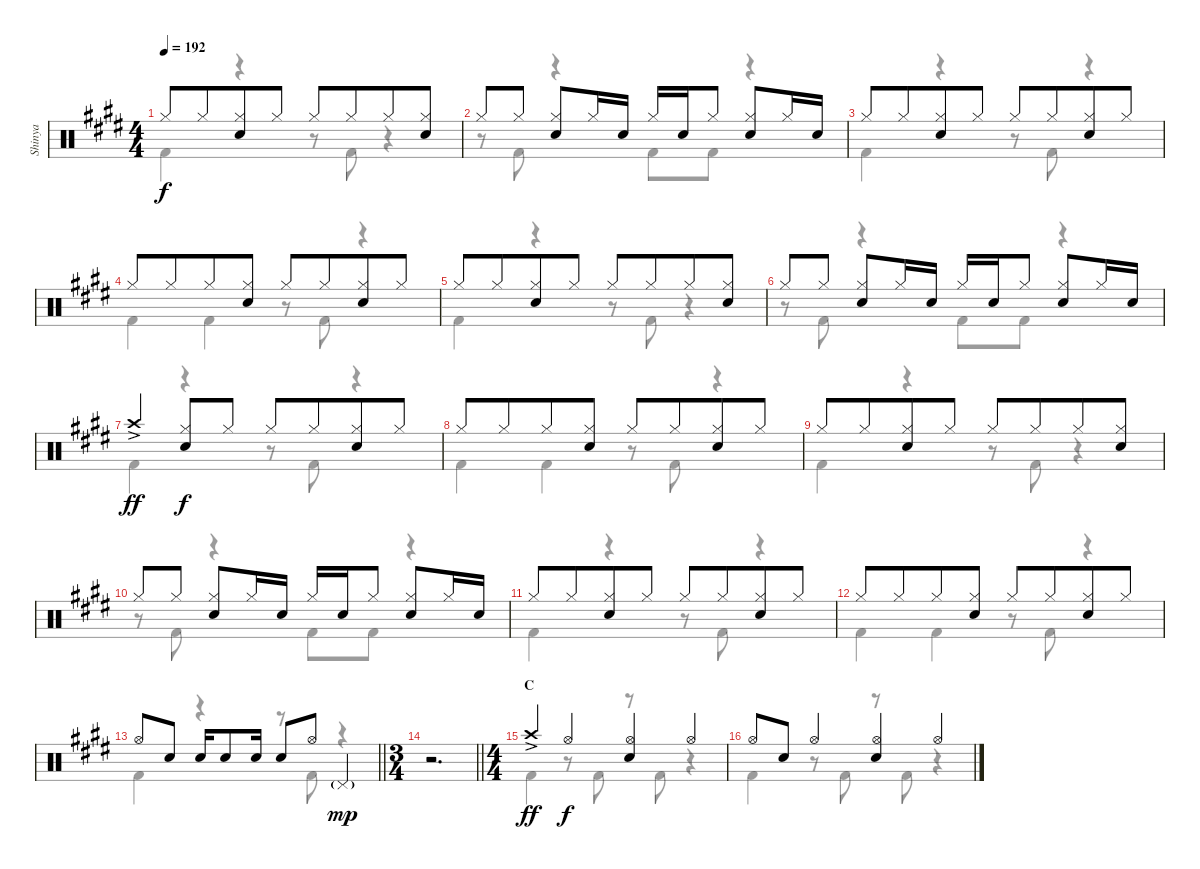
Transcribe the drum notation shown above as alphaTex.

\track ("Shinya" "Shinya") {instrument percussion}
\staff {score}
\articulation defaults
\voice
\ts (4 4)
\tempo 192
\clef neutral
\ks c#minor "Hi-Hat (closed)".8{dy f} "Hi-Hat (closed)".8{beam merge}
("Hi-Hat (closed)" "Snare (hit) 2").8 "Hi-Hat (closed)".8 "Hi-Hat (closed)".8 "Hi-Hat (closed)".8{beam merge} "Hi-Hat (closed)".8 ("Hi-Hat (closed)" "Snare (hit) 2").8 |
"Hi-Hat (closed)".8 "Hi-Hat (closed)".8 ("Hi-Hat (closed)" "Snare (hit) 2").8 "Hi-Hat (closed)".16 "Snare (hit) 2".16 "Hi-Hat (closed)".16 "Snare (hit) 2".16 "Hi-Hat (closed)".8 ("Hi-Hat (closed)" "Snare (hit) 2").8 "Hi-Hat (closed)".16 "Snare (hit) 2".16 |
"Hi-Hat (closed)".8 "Hi-Hat (closed)".8{beam merge} ("Hi-Hat (closed)" "Snare (hit) 2").8 "Hi-Hat (closed)".8 "Hi-Hat (closed)".8 "Hi-Hat (closed)".8{beam merge} ("Hi-Hat (closed)" "Snare (hit) 2").8 "Hi-Hat (closed)".8 |
"Hi-Hat (closed)".8 "Hi-Hat (closed)".8{beam merge} "Hi-Hat (closed)".8 ("Hi-Hat (closed)" "Snare (hit) 2").8 "Hi-Hat (closed)".8 "Hi-Hat (closed)".8{beam merge} ("Hi-Hat (closed)" "Snare (hit) 2").8 "Hi-Hat (closed)".8 |
"Hi-Hat (closed)".8 "Hi-Hat (closed)".8{beam merge} ("Hi-Hat (closed)" "Snare (hit) 2").8 "Hi-Hat (closed)".8 "Hi-Hat (closed)".8 "Hi-Hat (closed)".8{beam merge} "Hi-Hat (closed)".8 ("Hi-Hat (closed)" "Snare (hit) 2").8 |
"Hi-Hat (closed)".8 "Hi-Hat (closed)".8 ("Hi-Hat (closed)" "Snare (hit) 2").8 "Hi-Hat (closed)".16 "Snare (hit) 2".16 "Hi-Hat (closed)".16 "Snare (hit) 2".16 "Hi-Hat (closed)".8 ("Hi-Hat (closed)" "Snare (hit) 2").8 "Hi-Hat (closed)".16 "Snare (hit) 2".16 |
"Crash high (hit)"{ac}.4{dy ff} ("Hi-Hat (closed)" "Snare (hit) 2").8{dy f} "Hi-Hat (closed)".8 "Hi-Hat (closed)".8 "Hi-Hat (closed)".8{beam merge} ("Hi-Hat (closed)" "Snare (hit) 2").8 "Hi-Hat (closed)".8 |
"Hi-Hat (closed)".8 "Hi-Hat (closed)".8{beam merge} "Hi-Hat (closed)".8 ("Hi-Hat (closed)" "Snare (hit) 2").8 "Hi-Hat (closed)".8 "Hi-Hat (closed)".8{beam merge} ("Hi-Hat (closed)" "Snare (hit) 2").8 "Hi-Hat (closed)".8 |
"Hi-Hat (closed)".8 "Hi-Hat (closed)".8{beam merge} ("Hi-Hat (closed)" "Snare (hit) 2").8 "Hi-Hat (closed)".8 "Hi-Hat (closed)".8 "Hi-Hat (closed)".8{beam merge} "Hi-Hat (closed)".8 ("Hi-Hat (closed)" "Snare (hit) 2").8 |
"Hi-Hat (closed)".8 "Hi-Hat (closed)".8 ("Hi-Hat (closed)" "Snare (hit) 2").8 "Hi-Hat (closed)".16 "Snare (hit) 2".16 "Hi-Hat (closed)".16 "Snare (hit) 2".16 "Hi-Hat (closed)".8 ("Hi-Hat (closed)" "Snare (hit) 2").8 "Hi-Hat (closed)".16 "Snare (hit) 2".16 |
"Hi-Hat (closed)".8 "Hi-Hat (closed)".8{beam merge} ("Hi-Hat (closed)" "Snare (hit) 2").8 "Hi-Hat (closed)".8 "Hi-Hat (closed)".8 "Hi-Hat (closed)".8{beam merge} ("Hi-Hat (closed)" "Snare (hit) 2").8 "Hi-Hat (closed)".8 |
"Hi-Hat (closed)".8 "Hi-Hat (closed)".8{beam merge} "Hi-Hat (closed)".8 ("Hi-Hat (closed)" "Snare (hit) 2").8 "Hi-Hat (closed)".8 "Hi-Hat (closed)".8{beam merge} ("Hi-Hat (closed)" "Snare (hit) 2").8 "Hi-Hat (closed)".8 |
\barLineRight lightlight "Hi-Hat (open)".8 "Snare (hit) 2".8 "Snare (hit) 2".16 "Snare (hit) 2".8 "Snare (hit) 2".16 "Snare (hit) 2".8 "Hi-Hat (open)".8 "Pedal Hi-Hat (hit)"{g}.4{dy mp}
|
\ts (3 4)
\barLineRight lightlight
r.2{d} |
\ts (4 4)
\section ("" "C")
"Crash high (hit)"{ac}.4{dy ff} "Hi-Hat (open)".4{dy f} ("Hi-Hat (open)" "Snare (hit) 2").4 "Hi-Hat (open)".4 |
"Hi-Hat (open)".8 "Snare (hit) 2".8 "Hi-Hat (open)".4 ("Hi-Hat (open)" "Snare (hit) 2").4 "Hi-Hat (open)".4
\voice
\clef neutral
\ottava regular
\simile none
\ks c#minor "Kick (hit) 2".4{dy f}
r.4 r.8 "Kick (hit) 2".8 r.4 |
r.8 "Kick (hit) 2".8 r.4 "Kick (hit) 2".8 "Kick (hit) 2".8 r.4 |
"Kick (hit) 2".4 r.4 r.8 "Kick (hit) 2".8 r.4 |
"Kick (hit) 2".4 "Kick (hit) 2".4 r.8 "Kick (hit) 2".8 r.4 |
"Kick (hit) 2".4 r.4 r.8 "Kick (hit) 2".8 r.4 |
r.8 "Kick (hit) 2".8 r.4 "Kick (hit) 2".8 "Kick (hit) 2".8 r.4 |
"Kick (hit) 2".4 r.4 r.8 "Kick (hit) 2".8 r.4 |
"Kick (hit) 2".4 "Kick (hit) 2".4 r.8 "Kick (hit) 2".8 r.4 |
"Kick (hit) 2".4 r.4 r.8 "Kick (hit) 2".8 r.4 |
r.8 "Kick (hit) 2".8 r.4 "Kick (hit) 2".8 "Kick (hit) 2".8 r.4 |
"Kick (hit) 2".4 r.4 r.8 "Kick (hit) 2".8 r.4 |
"Kick (hit) 2".4 "Kick (hit) 2".4 r.8 "Kick (hit) 2".8 r.4 |
\barLineRight lightlight "Kick (hit) 2".4
r.4 r.8 "Kick (hit) 2".8 r.4 |
\barLineRight lightlight
r.2{d} |
"Kick (hit) 2".4 r.8 "Kick (hit) 2".8 r.8 "Kick (hit) 2".8 r.4 |
"Kick (hit) 2".4 r.8 "Kick (hit) 2".8 r.8 "Kick (hit) 2".8 r.4
